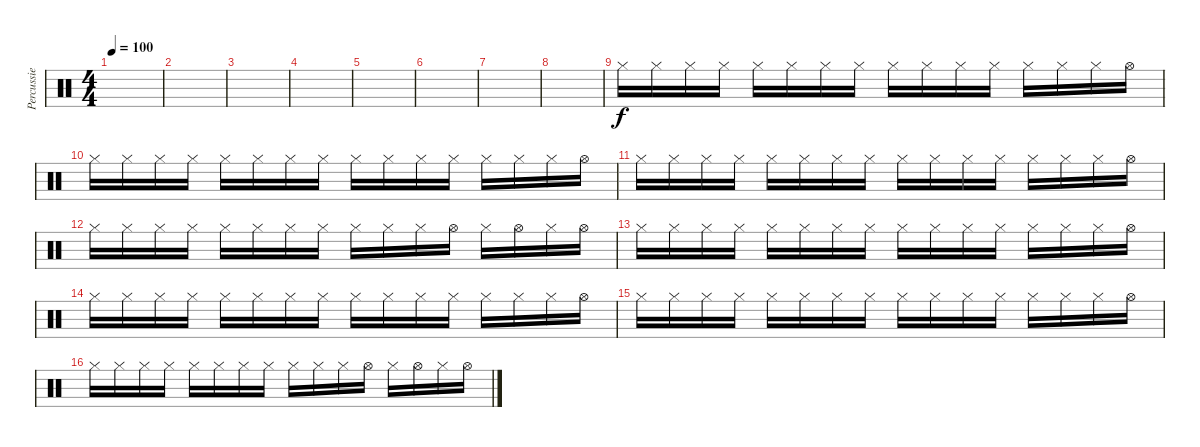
\track ("Percussie" "Percussie") {instrument percussion}
\staff {score}
\articulation defaults
\ts (4 4)
\tempo 100
\clef neutral
\ks c
|
|
|
|
|
|
|
|
"Hi-Hat (closed)".16 "Hi-Hat (closed)".16 "Hi-Hat (closed)".16 "Hi-Hat (closed)".16 "Hi-Hat (closed)".16 "Hi-Hat (closed)".16 "Hi-Hat (closed)".16 "Hi-Hat (closed)".16 "Hi-Hat (closed)".16 "Hi-Hat (closed)".16 "Hi-Hat (closed)".16 "Hi-Hat (closed)".16 "Hi-Hat (closed)".16 "Hi-Hat (closed)".16 "Hi-Hat (closed)".16 "Hi-Hat (open)".16 |
"Hi-Hat (closed)".16 "Hi-Hat (closed)".16 "Hi-Hat (closed)".16 "Hi-Hat (closed)".16 "Hi-Hat (closed)".16 "Hi-Hat (closed)".16 "Hi-Hat (closed)".16 "Hi-Hat (closed)".16 "Hi-Hat (closed)".16 "Hi-Hat (closed)".16 "Hi-Hat (closed)".16 "Hi-Hat (closed)".16 "Hi-Hat (closed)".16 "Hi-Hat (closed)".16 "Hi-Hat (closed)".16 "Hi-Hat (open)".16 |
"Hi-Hat (closed)".16 "Hi-Hat (closed)".16 "Hi-Hat (closed)".16 "Hi-Hat (closed)".16 "Hi-Hat (closed)".16 "Hi-Hat (closed)".16 "Hi-Hat (closed)".16 "Hi-Hat (closed)".16 "Hi-Hat (closed)".16 "Hi-Hat (closed)".16 "Hi-Hat (closed)".16 "Hi-Hat (closed)".16 "Hi-Hat (closed)".16 "Hi-Hat (closed)".16 "Hi-Hat (closed)".16 "Hi-Hat (open)".16 |
"Hi-Hat (closed)".16 "Hi-Hat (closed)".16 "Hi-Hat (closed)".16 "Hi-Hat (closed)".16 "Hi-Hat (closed)".16 "Hi-Hat (closed)".16 "Hi-Hat (closed)".16 "Hi-Hat (closed)".16 "Hi-Hat (closed)".16 "Hi-Hat (closed)".16 "Hi-Hat (closed)".16 "Hi-Hat (open)".16 "Hi-Hat (closed)".16 "Hi-Hat (open)".16 "Hi-Hat (closed)".16 "Hi-Hat (open)".16 |
"Hi-Hat (closed)".16 "Hi-Hat (closed)".16 "Hi-Hat (closed)".16 "Hi-Hat (closed)".16 "Hi-Hat (closed)".16 "Hi-Hat (closed)".16 "Hi-Hat (closed)".16 "Hi-Hat (closed)".16 "Hi-Hat (closed)".16 "Hi-Hat (closed)".16 "Hi-Hat (closed)".16 "Hi-Hat (closed)".16 "Hi-Hat (closed)".16 "Hi-Hat (closed)".16 "Hi-Hat (closed)".16 "Hi-Hat (open)".16 |
"Hi-Hat (closed)".16 "Hi-Hat (closed)".16 "Hi-Hat (closed)".16 "Hi-Hat (closed)".16 "Hi-Hat (closed)".16 "Hi-Hat (closed)".16 "Hi-Hat (closed)".16 "Hi-Hat (closed)".16 "Hi-Hat (closed)".16 "Hi-Hat (closed)".16 "Hi-Hat (closed)".16 "Hi-Hat (closed)".16 "Hi-Hat (closed)".16 "Hi-Hat (closed)".16 "Hi-Hat (closed)".16 "Hi-Hat (open)".16 |
"Hi-Hat (closed)".16 "Hi-Hat (closed)".16 "Hi-Hat (closed)".16 "Hi-Hat (closed)".16 "Hi-Hat (closed)".16 "Hi-Hat (closed)".16 "Hi-Hat (closed)".16 "Hi-Hat (closed)".16 "Hi-Hat (closed)".16 "Hi-Hat (closed)".16 "Hi-Hat (closed)".16 "Hi-Hat (closed)".16 "Hi-Hat (closed)".16 "Hi-Hat (closed)".16 "Hi-Hat (closed)".16 "Hi-Hat (open)".16 |
"Hi-Hat (closed)".16 "Hi-Hat (closed)".16 "Hi-Hat (closed)".16 "Hi-Hat (closed)".16 "Hi-Hat (closed)".16 "Hi-Hat (closed)".16 "Hi-Hat (closed)".16 "Hi-Hat (closed)".16 "Hi-Hat (closed)".16 "Hi-Hat (closed)".16 "Hi-Hat (closed)".16 "Hi-Hat (open)".16 "Hi-Hat (closed)".16 "Hi-Hat (open)".16 "Hi-Hat (closed)".16 "Hi-Hat (open)".16
